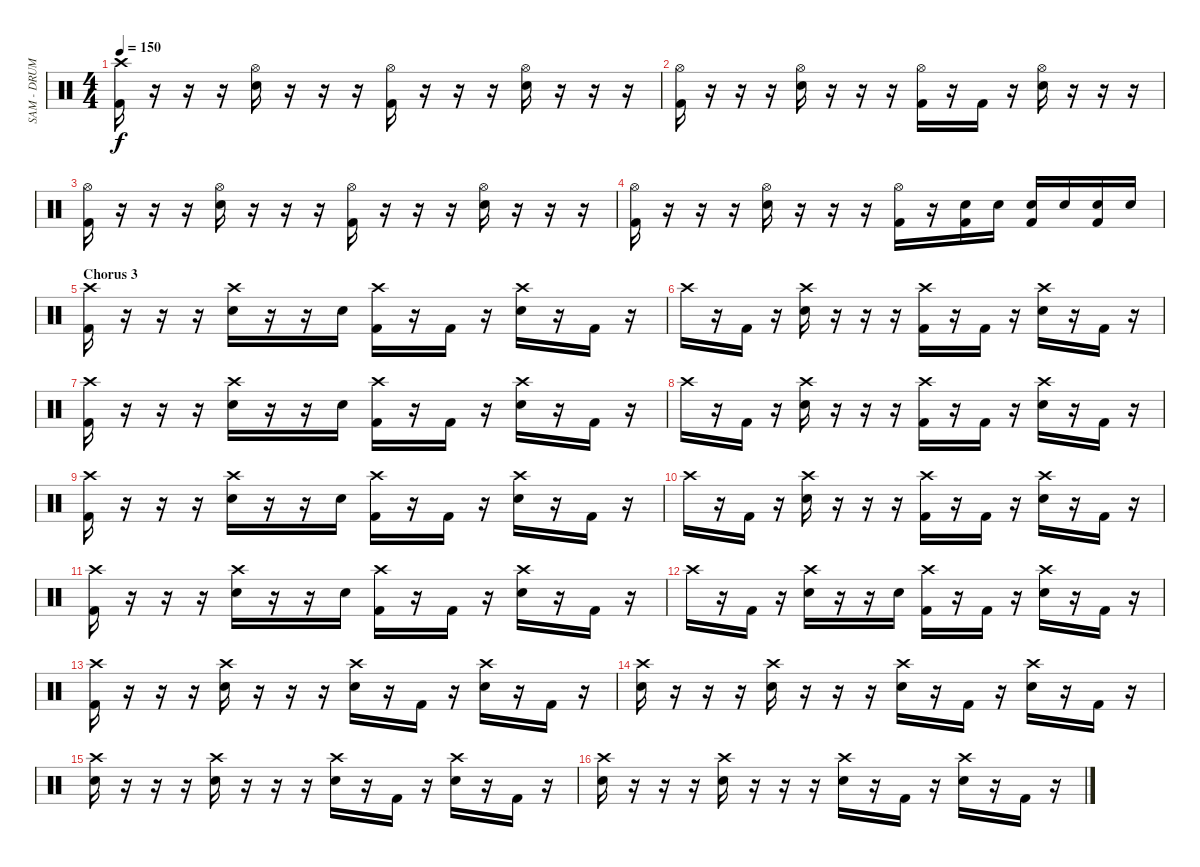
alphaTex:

\track ("SAM - DRUMS" "SAM - DRUM") {instrument percussion}
\staff {score}
\articulation defaults
\ts (4 4)
\tempo 150
\clef neutral
\ks c
("Crash high (hit)" "Kick (hit) 2").16{dy f} r.16 r.16 r.16 ("Hi-Hat (open)" "Snare (hit) 2").16 r.16 r.16 r.16 ("Hi-Hat (open)" "Kick (hit) 2").16 r.16 r.16 r.16 ("Hi-Hat (open)" "Snare (hit) 2").16 r.16 r.16 r.16 |
("Hi-Hat (open)" "Kick (hit) 2").16 r.16 r.16 r.16 ("Hi-Hat (open)" "Snare (hit) 2").16 r.16 r.16 r.16 ("Hi-Hat (open)" "Kick (hit) 2").16 r.16 "Kick (hit) 2".16 r.16 ("Hi-Hat (open)" "Snare (hit) 2").16 r.16 r.16 r.16 |
("Hi-Hat (open)" "Kick (hit) 2").16 r.16 r.16 r.16 ("Hi-Hat (open)" "Snare (hit) 2").16 r.16 r.16 r.16 ("Hi-Hat (open)" "Kick (hit) 2").16 r.16 r.16 r.16 ("Hi-Hat (open)" "Snare (hit) 2").16 r.16 r.16 r.16 |
("Hi-Hat (open)" "Kick (hit) 2").16 r.16 r.16 r.16 ("Hi-Hat (open)" "Snare (hit) 2").16 r.16 r.16 r.16 ("Hi-Hat (open)" "Kick (hit) 2").16 r.16 ("Snare (hit) 2" "Kick (hit) 2").16 "Snare (hit) 2".16 ("Snare (hit) 2" "Kick (hit) 2").16 "Snare (hit) 2".16 ("Snare (hit) 2" "Kick (hit) 2").16 "Snare (hit) 2".16 |
\section ("" "Chorus 3")
("Crash high (hit)" "Kick (hit) 2").16 r.16 r.16 r.16 ("Crash high (hit)" "Snare (hit) 2").16 r.16 r.16 "Snare (hit) 2".16 ("Crash high (hit)" "Kick (hit) 2").16 r.16 "Kick (hit) 2".16 r.16 ("Crash high (hit)" "Snare (hit) 2").16 r.16 "Kick (hit) 2".16 r.16 |
"Crash high (hit)".16 r.16 "Kick (hit) 2".16 r.16 ("Crash high (hit)" "Snare (hit) 2").16 r.16 r.16 r.16 ("Crash high (hit)" "Kick (hit) 2").16 r.16 "Kick (hit) 2".16 r.16 ("Crash high (hit)" "Snare (hit) 2").16 r.16 "Kick (hit) 2".16 r.16 |
("Crash high (hit)" "Kick (hit) 2").16 r.16 r.16 r.16 ("Crash high (hit)" "Snare (hit) 2").16 r.16 r.16 "Snare (hit) 2".16 ("Crash high (hit)" "Kick (hit) 2").16 r.16 "Kick (hit) 2".16 r.16 ("Crash high (hit)" "Snare (hit) 2").16 r.16 "Kick (hit) 2".16 r.16 |
"Crash high (hit)".16 r.16 "Kick (hit) 2".16 r.16 ("Crash high (hit)" "Snare (hit) 2").16 r.16 r.16 r.16 ("Crash high (hit)" "Kick (hit) 2").16 r.16 "Kick (hit) 2".16 r.16 ("Crash high (hit)" "Snare (hit) 2").16 r.16 "Kick (hit) 2".16 r.16 |
("Crash high (hit)" "Kick (hit) 2").16 r.16 r.16 r.16 ("Crash high (hit)" "Snare (hit) 2").16 r.16 r.16 "Snare (hit) 2".16 ("Crash high (hit)" "Kick (hit) 2").16 r.16 "Kick (hit) 2".16 r.16 ("Crash high (hit)" "Snare (hit) 2").16 r.16 "Kick (hit) 2".16 r.16 |
"Crash high (hit)".16 r.16 "Kick (hit) 2".16 r.16 ("Crash high (hit)" "Snare (hit) 2").16 r.16 r.16 r.16 ("Crash high (hit)" "Kick (hit) 2").16 r.16 "Kick (hit) 2".16 r.16 ("Crash high (hit)" "Snare (hit) 2").16 r.16 "Kick (hit) 2".16 r.16 |
("Crash high (hit)" "Kick (hit) 2").16 r.16 r.16 r.16 ("Crash high (hit)" "Snare (hit) 2").16 r.16 r.16 "Snare (hit) 2".16 ("Crash high (hit)" "Kick (hit) 2").16 r.16 "Kick (hit) 2".16 r.16 ("Crash high (hit)" "Snare (hit) 2").16 r.16 "Kick (hit) 2".16 r.16 |
"Crash high (hit)".16 r.16 "Kick (hit) 2".16 r.16 ("Crash high (hit)" "Snare (hit) 2").16 r.16 r.16 "Snare (hit) 2".16 ("Crash high (hit)" "Kick (hit) 2").16 r.16 "Kick (hit) 2".16 r.16 ("Crash high (hit)" "Snare (hit) 2").16 r.16 "Kick (hit) 2".16 r.16 |
("Crash high (hit)" "Kick (hit) 2").16 r.16 r.16 r.16 ("Crash high (hit)" "Snare (hit) 2").16 r.16 r.16 r.16 ("Crash high (hit)" "Snare (hit) 2").16 r.16 "Kick (hit) 2".16 r.16 ("Crash high (hit)" "Snare (hit) 2").16 r.16 "Kick (hit) 2".16 r.16 |
("Crash high (hit)" "Snare (hit) 2").16 r.16 r.16 r.16 ("Crash high (hit)" "Snare (hit) 2").16 r.16 r.16 r.16 ("Crash high (hit)" "Snare (hit) 2").16 r.16 "Kick (hit) 2".16 r.16 ("Crash high (hit)" "Snare (hit) 2").16 r.16 "Kick (hit) 2".16 r.16 |
("Crash high (hit)" "Snare (hit) 2").16 r.16 r.16 r.16 ("Crash high (hit)" "Snare (hit) 2").16 r.16 r.16 r.16 ("Crash high (hit)" "Snare (hit) 2").16 r.16 "Kick (hit) 2".16 r.16 ("Crash high (hit)" "Snare (hit) 2").16 r.16 "Kick (hit) 2".16 r.16 |
("Crash high (hit)" "Snare (hit) 2").16 r.16 r.16 r.16 ("Crash high (hit)" "Snare (hit) 2").16 r.16 r.16 r.16 ("Crash high (hit)" "Snare (hit) 2").16 r.16 "Kick (hit) 2".16 r.16 ("Crash high (hit)" "Snare (hit) 2").16 r.16 "Kick (hit) 2".16 r.16
